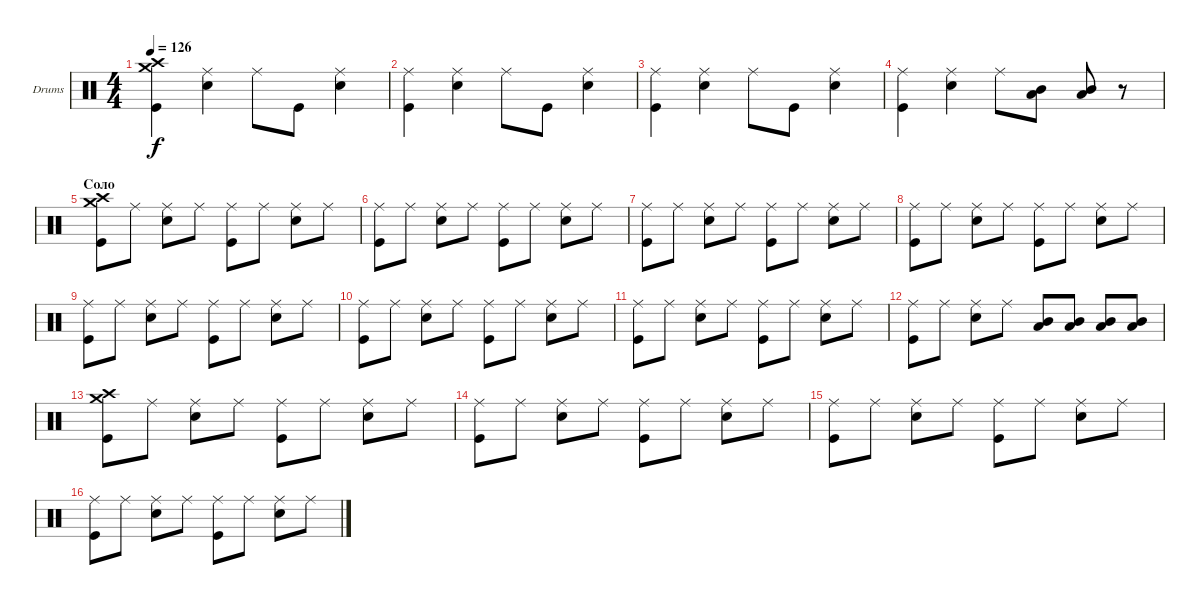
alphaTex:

\bracketExtendMode groupsimilarinstruments
\firstSystemTrackNameOrientation horizontal
\otherSystemsTrackNameOrientation horizontal
\track ("Александр Манякин" "Drums") {instrument percussion}
\staff {score}
\articulation defaults
\ts (4 4)
\tempo 126
\clef neutral
\ks c
("Kick (hit)" "Crash medium (hit)" "Crash high (hit)").4{dy f} ("Snare (hit) 2" "Ride (middle)").4 "Ride (middle)".8 "Kick (hit)".8 ("Snare (hit) 2" "Ride (middle)").4 |
("Kick (hit)" "Ride (middle)").4 ("Snare (hit) 2" "Ride (middle)").4 "Ride (middle)".8 "Kick (hit)".8 ("Snare (hit) 2" "Ride (middle)").4 |
("Kick (hit)" "Ride (middle)").4 ("Snare (hit) 2" "Ride (middle)").4 "Ride (middle)".8 "Kick (hit)".8 ("Snare (hit) 2" "Ride (middle)").4 |
("Kick (hit)" "Ride (middle)").4 ("Snare (hit) 2" "Ride (middle)").4 "Ride (middle)".8 ("Mid Tom (hit)" "Low Tom (hit)").8 ("Mid Tom (hit)" "Low Tom (hit)").8 r.8 |
\section ("" "Соло")
("Kick (hit)" "Crash medium (hit)" "Crash high (hit)").8 "Ride (middle)".8 ("Snare (hit) 2" "Ride (middle)").8 "Ride (middle)".8 ("Kick (hit)" "Ride (middle)").8 "Ride (middle)".8 ("Snare (hit) 2" "Ride (middle)").8 "Ride (middle)".8 |
("Kick (hit)" "Ride (middle)").8 "Ride (middle)".8 ("Snare (hit) 2" "Ride (middle)").8 "Ride (middle)".8 ("Kick (hit)" "Ride (middle)").8 "Ride (middle)".8 ("Snare (hit) 2" "Ride (middle)").8 "Ride (middle)".8 |
("Kick (hit)" "Ride (middle)").8 "Ride (middle)".8 ("Snare (hit) 2" "Ride (middle)").8 "Ride (middle)".8 ("Kick (hit)" "Ride (middle)").8 "Ride (middle)".8 ("Snare (hit) 2" "Ride (middle)").8 "Ride (middle)".8 |
("Kick (hit)" "Ride (middle)").8 "Ride (middle)".8 ("Snare (hit) 2" "Ride (middle)").8 "Ride (middle)".8 ("Kick (hit)" "Ride (middle)").8 "Ride (middle)".8 ("Snare (hit) 2" "Ride (middle)").8 "Ride (middle)".8 |
("Kick (hit)" "Ride (middle)").8 "Ride (middle)".8 ("Snare (hit) 2" "Ride (middle)").8 "Ride (middle)".8 ("Kick (hit)" "Ride (middle)").8 "Ride (middle)".8 ("Snare (hit) 2" "Ride (middle)").8 "Ride (middle)".8 |
("Kick (hit)" "Ride (middle)").8 "Ride (middle)".8 ("Snare (hit) 2" "Ride (middle)").8 "Ride (middle)".8 ("Kick (hit)" "Ride (middle)").8 "Ride (middle)".8 ("Snare (hit) 2" "Ride (middle)").8 "Ride (middle)".8 |
("Kick (hit)" "Ride (middle)").8 "Ride (middle)".8 ("Snare (hit) 2" "Ride (middle)").8 "Ride (middle)".8 ("Kick (hit)" "Ride (middle)").8 "Ride (middle)".8 ("Snare (hit) 2" "Ride (middle)").8 "Ride (middle)".8 |
("Kick (hit)" "Ride (middle)").8 "Ride (middle)".8 ("Snare (hit) 2" "Ride (middle)").8 "Ride (middle)".8 ("Mid Tom (hit)" "Low Tom (hit)").8 ("Mid Tom (hit)" "Low Tom (hit)").8 ("Mid Tom (hit)" "Low Tom (hit)").8 ("Mid Tom (hit)" "Low Tom (hit)").8 |
("Kick (hit)" "Crash medium (hit)" "Crash high (hit)").8 "Ride (middle)".8 ("Snare (hit) 2" "Ride (middle)").8 "Ride (middle)".8 ("Kick (hit)" "Ride (middle)").8 "Ride (middle)".8 ("Snare (hit) 2" "Ride (middle)").8 "Ride (middle)".8 |
("Kick (hit)" "Ride (middle)").8 "Ride (middle)".8 ("Snare (hit) 2" "Ride (middle)").8 "Ride (middle)".8 ("Kick (hit)" "Ride (middle)").8 "Ride (middle)".8 ("Snare (hit) 2" "Ride (middle)").8 "Ride (middle)".8 |
("Kick (hit)" "Ride (middle)").8 "Ride (middle)".8 ("Snare (hit) 2" "Ride (middle)").8 "Ride (middle)".8 ("Kick (hit)" "Ride (middle)").8 "Ride (middle)".8 ("Snare (hit) 2" "Ride (middle)").8 "Ride (middle)".8 |
("Kick (hit)" "Ride (middle)").8 "Ride (middle)".8 ("Snare (hit) 2" "Ride (middle)").8 "Ride (middle)".8 ("Kick (hit)" "Ride (middle)").8 "Ride (middle)".8 ("Snare (hit) 2" "Ride (middle)").8 "Ride (middle)".8
